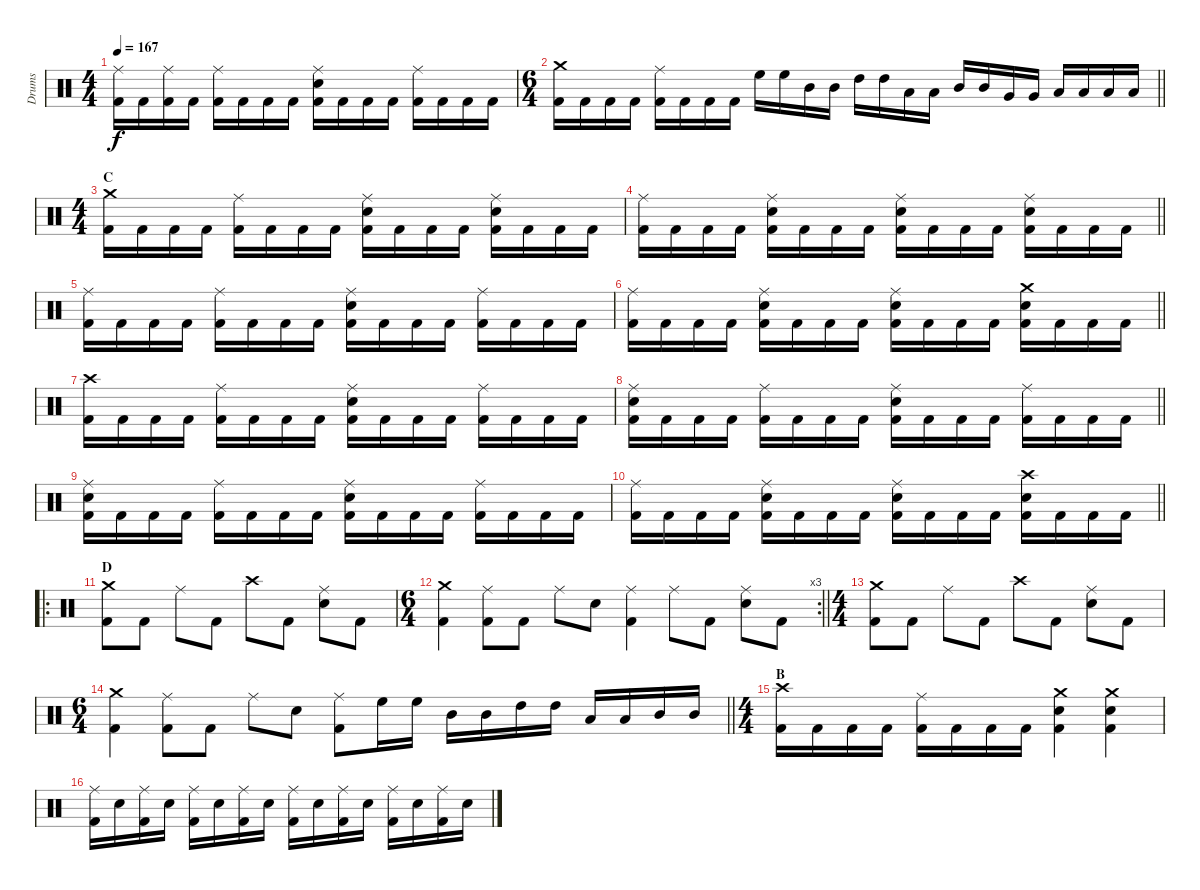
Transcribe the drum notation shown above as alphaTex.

\track ("Drums" "Drums") {instrument percussion}
\staff {score}
\articulation defaults
\ts (4 4)
\tempo 167
\clef neutral
\ks c
("Ride (middle)" "Kick (hit) 2").16{dy f} "Kick (hit) 2".16 ("Ride (middle)" "Kick (hit) 2").16 "Kick (hit) 2".16 ("Ride (middle)" "Kick (hit) 2").16 "Kick (hit) 2".16 "Kick (hit) 2".16 "Kick (hit) 2".16 ("Ride (middle)" "Electric Snare (hit)" "Kick (hit) 2").16 "Kick (hit) 2".16 "Kick (hit) 2".16 "Kick (hit) 2".16 ("Ride (middle)" "Kick (hit) 2").16 "Kick (hit) 2".16 "Kick (hit) 2".16 "Kick (hit) 2".16 |
\ts (6 4)
\barLineRight lightlight
("Crash medium (hit)" "Kick (hit) 2").16 "Kick (hit) 2".16 "Kick (hit) 2".16 "Kick (hit) 2".16 ("Ride (middle)" "Kick (hit) 2").16 "Kick (hit) 2".16 "Kick (hit) 2".16 "Kick (hit) 2".16 "High Floor Tom (hit)".16 "High Floor Tom (hit)".16 "Mid Tom (hit)".16 "Mid Tom (hit)".16 "High Tom (hit)".16 "High Tom (hit)".16 "Low Tom (hit)".16 "Low Tom (hit)".16 "Mid Tom (hit)".16 "Mid Tom (hit)".16 "Very Low Tom (hit)".16 "Very Low Tom (hit)".16 "Low Tom (hit)".16 "Low Tom (hit)".16 "Low Floor Tom (hit)".16 "Low Floor Tom (hit)".16 |
\ts (4 4)
\section ("" "C")
("Crash medium (hit)" "Kick (hit) 2").16 "Kick (hit) 2".16 "Kick (hit) 2".16 "Kick (hit) 2".16 ("Ride (middle)" "Kick (hit) 2").16 "Kick (hit) 2".16 "Kick (hit) 2".16 "Kick (hit) 2".16 ("Ride (middle)" "Electric Snare (hit)" "Kick (hit) 2").16 "Kick (hit) 2".16 "Kick (hit) 2".16 "Kick (hit) 2".16 ("Ride (middle)" "Electric Snare (hit)" "Kick (hit) 2").16 "Kick (hit) 2".16 "Kick (hit) 2".16 "Kick (hit) 2".16 |
\barLineRight lightlight
("Ride (middle)" "Kick (hit) 2").16 "Kick (hit) 2".16 "Kick (hit) 2".16 "Kick (hit) 2".16 ("Ride (middle)" "Electric Snare (hit)" "Kick (hit) 2").16 "Kick (hit) 2".16 "Kick (hit) 2".16 "Kick (hit) 2".16 ("Ride (middle)" "Electric Snare (hit)" "Kick (hit) 2").16 "Kick (hit) 2".16 "Kick (hit) 2".16 "Kick (hit) 2".16 ("Ride (middle)" "Electric Snare (hit)" "Kick (hit) 2").16 "Kick (hit) 2".16 "Kick (hit) 2".16 "Kick (hit) 2".16 |
\section ("" "")
("Ride (middle)" "Kick (hit) 2").16 "Kick (hit) 2".16 "Kick (hit) 2".16 "Kick (hit) 2".16 ("Ride (middle)" "Kick (hit) 2").16 "Kick (hit) 2".16 "Kick (hit) 2".16 "Kick (hit) 2".16 ("Ride (middle)" "Electric Snare (hit)" "Kick (hit) 2").16 "Kick (hit) 2".16 "Kick (hit) 2".16 "Kick (hit) 2".16 ("Ride (middle)" "Kick (hit) 2").16 "Kick (hit) 2".16 "Kick (hit) 2".16 "Kick (hit) 2".16 |
\barLineRight lightlight
("Ride (middle)" "Kick (hit) 2").16 "Kick (hit) 2".16 "Kick (hit) 2".16 "Kick (hit) 2".16 ("Ride (middle)" "Electric Snare (hit)" "Kick (hit) 2").16 "Kick (hit) 2".16 "Kick (hit) 2".16 "Kick (hit) 2".16 ("Ride (middle)" "Electric Snare (hit)" "Kick (hit) 2").16 "Kick (hit) 2".16 "Kick (hit) 2".16 "Kick (hit) 2".16 ("Crash medium (hit)" "Electric Snare (hit)" "Kick (hit) 2").16 "Kick (hit) 2".16 "Kick (hit) 2".16 "Kick (hit) 2".16 |
\section ("" "")
("Crash high (hit)" "Kick (hit) 2").16 "Kick (hit) 2".16 "Kick (hit) 2".16 "Kick (hit) 2".16 ("Ride (middle)" "Kick (hit) 2").16 "Kick (hit) 2".16 "Kick (hit) 2".16 "Kick (hit) 2".16 ("Ride (middle)" "Electric Snare (hit)" "Kick (hit) 2").16 "Kick (hit) 2".16 "Kick (hit) 2".16 "Kick (hit) 2".16 ("Ride (middle)" "Kick (hit) 2").16 "Kick (hit) 2".16 "Kick (hit) 2".16 "Kick (hit) 2".16 |
\barLineRight lightlight
("Ride (middle)" "Electric Snare (hit)" "Kick (hit) 2").16 "Kick (hit) 2".16 "Kick (hit) 2".16 "Kick (hit) 2".16 ("Ride (middle)" "Kick (hit) 2").16 "Kick (hit) 2".16 "Kick (hit) 2".16 "Kick (hit) 2".16 ("Ride (middle)" "Electric Snare (hit)" "Kick (hit) 2").16 "Kick (hit) 2".16 "Kick (hit) 2".16 "Kick (hit) 2".16 ("Ride (middle)" "Kick (hit) 2").16 "Kick (hit) 2".16 "Kick (hit) 2".16 "Kick (hit) 2".16 |
\section ("" "")
("Ride (middle)" "Electric Snare (hit)" "Kick (hit) 2").16 "Kick (hit) 2".16 "Kick (hit) 2".16 "Kick (hit) 2".16 ("Ride (middle)" "Kick (hit) 2").16 "Kick (hit) 2".16 "Kick (hit) 2".16 "Kick (hit) 2".16 ("Ride (middle)" "Electric Snare (hit)" "Kick (hit) 2").16 "Kick (hit) 2".16 "Kick (hit) 2".16 "Kick (hit) 2".16 ("Ride (middle)" "Kick (hit) 2").16 "Kick (hit) 2".16 "Kick (hit) 2".16 "Kick (hit) 2".16 |
\barLineRight lightlight
("Ride (middle)" "Kick (hit) 2").16 "Kick (hit) 2".16 "Kick (hit) 2".16 "Kick (hit) 2".16 ("Ride (middle)" "Electric Snare (hit)" "Kick (hit) 2").16 "Kick (hit) 2".16 "Kick (hit) 2".16 "Kick (hit) 2".16 ("Ride (middle)" "Electric Snare (hit)" "Kick (hit) 2").16 "Kick (hit) 2".16 "Kick (hit) 2".16 "Kick (hit) 2".16 ("Crash high (hit)" "Electric Snare (hit)" "Kick (hit) 2").16 "Kick (hit) 2".16 "Kick (hit) 2".16 "Kick (hit) 2".16 |
\ro
\section ("" "D")
("Crash medium (hit)" "Kick (hit) 2").8 "Kick (hit) 2".8 "Ride (middle)".8 "Kick (hit) 2".8 "Crash high (hit)".8 "Kick (hit) 2".8 ("Ride (middle)" "Electric Snare (hit)").8 "Kick (hit) 2".8 |
\rc 3
\ts (6 4)
\barLineRight lightlight
("Crash medium (hit)" "Kick (hit) 2").4 ("Ride (middle)" "Kick (hit) 2").8 "Kick (hit) 2".8 "Ride (middle)".8 "Electric Snare (hit)".8 ("Ride (middle)" "Kick (hit) 2").4 "Ride (middle)".8 "Kick (hit) 2".8 ("Ride (middle)" "Electric Snare (hit)").8 "Kick (hit) 2".8 |
\ts (4 4)
\section ("" "")
("Crash medium (hit)" "Kick (hit) 2").8 "Kick (hit) 2".8 "Ride (middle)".8 "Kick (hit) 2".8 "Crash high (hit)".8 "Kick (hit) 2".8 ("Ride (middle)" "Electric Snare (hit)").8 "Kick (hit) 2".8 |
\ts (6 4)
\barLineRight lightlight
("Crash medium (hit)" "Kick (hit) 2").4 ("Ride (middle)" "Kick (hit) 2").8 "Kick (hit) 2".8 "Ride (middle)".8 "Electric Snare (hit)".8 ("Ride (middle)" "Kick (hit) 2").8 "High Floor Tom (hit)".16 "High Floor Tom (hit)".16 "Mid Tom (hit)".16 "Mid Tom (hit)".16 "High Tom (hit)".16 "High Tom (hit)".16 "Low Tom (hit)".16 "Low Tom (hit)".16 "Mid Tom (hit)".16 "Mid Tom (hit)".16 |
\ts (4 4)
\section ("" "B")
("Crash high (hit)" "Kick (hit) 2").16 "Kick (hit) 2".16 "Kick (hit) 2".16 "Kick (hit) 2".16 ("Ride (middle)" "Kick (hit) 2").16 "Kick (hit) 2".16 "Kick (hit) 2".16 "Kick (hit) 2".16 ("Crash medium (hit)" "Electric Snare (hit)" "Kick (hit) 2").4 ("Crash medium (hit)" "Electric Snare (hit)" "Kick (hit) 2").4 |
("Ride (middle)" "Kick (hit) 2").16 "Electric Snare (hit)".16 ("Ride (middle)" "Kick (hit) 2").16 "Electric Snare (hit)".16 ("Ride (middle)" "Kick (hit) 2").16 "Electric Snare (hit)".16 ("Ride (middle)" "Kick (hit) 2").16 "Electric Snare (hit)".16 ("Ride (middle)" "Kick (hit) 2").16 "Electric Snare (hit)".16 ("Ride (middle)" "Kick (hit) 2").16 "Electric Snare (hit)".16 ("Ride (middle)" "Kick (hit) 2").16 "Electric Snare (hit)".16 ("Ride (middle)" "Kick (hit) 2").16 "Electric Snare (hit)".16
